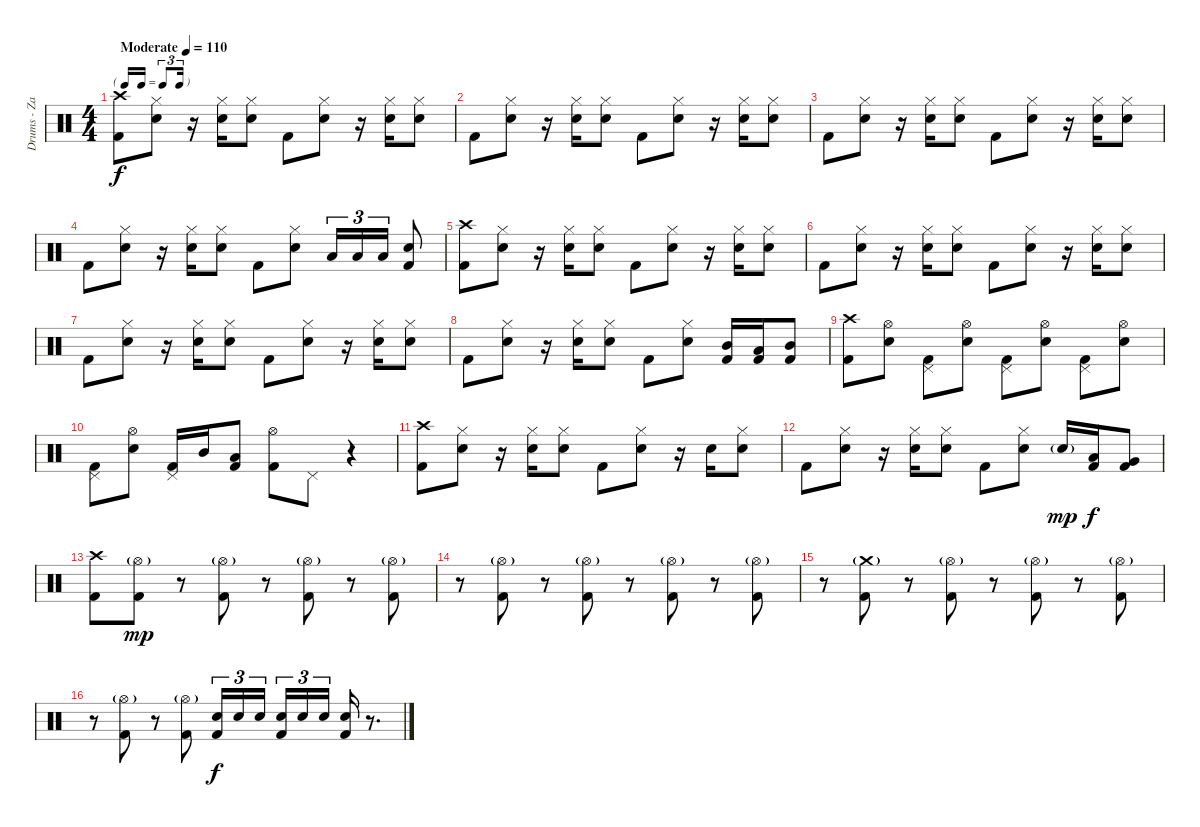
\track ("Drums - Zac" "Drums - Za") {instrument percussion}
\staff {score}
\articulation defaults
\ts (4 4)
\tf triplet16th
\tempo (110 "Moderate")
\clef neutral
\ks c
("Crash high (hit)" "Kick (hit) 2").8{dy f} ("Hi-Hat (closed)" "Snare (hit) 2").8 r.16 ("Hi-Hat (closed)" "Snare (hit) 2").16 ("Hi-Hat (closed)" "Snare (hit) 2").8 "Kick (hit) 2".8 ("Hi-Hat (closed)" "Snare (hit) 2").8 r.16 ("Hi-Hat (closed)" "Snare (hit) 2").16 ("Hi-Hat (closed)" "Snare (hit) 2").8 |
"Kick (hit) 2".8 ("Hi-Hat (closed)" "Snare (hit) 2").8 r.16 ("Hi-Hat (closed)" "Snare (hit) 2").16 ("Hi-Hat (closed)" "Snare (hit) 2").8 "Kick (hit) 2".8 ("Hi-Hat (closed)" "Snare (hit) 2").8 r.16 ("Hi-Hat (closed)" "Snare (hit) 2").16 ("Hi-Hat (closed)" "Snare (hit) 2").8 |
"Kick (hit) 2".8 ("Hi-Hat (closed)" "Snare (hit) 2").8 r.16 ("Hi-Hat (closed)" "Snare (hit) 2").16 ("Hi-Hat (closed)" "Snare (hit) 2").8 "Kick (hit) 2".8 ("Hi-Hat (closed)" "Snare (hit) 2").8 r.16 ("Hi-Hat (closed)" "Snare (hit) 2").16 ("Hi-Hat (closed)" "Snare (hit) 2").8 |
"Kick (hit) 2".8 ("Hi-Hat (closed)" "Snare (hit) 2").8 r.16 ("Hi-Hat (closed)" "Snare (hit) 2").16 ("Hi-Hat (closed)" "Snare (hit) 2").8 "Kick (hit) 2".8 ("Hi-Hat (closed)" "Snare (hit) 2").8 "Low Tom (hit)".16{tu (3 2)} "Low Tom (hit)".16{tu (3 2)} "Low Tom (hit)".16{tu (3 2)} ("Snare (hit) 2" "Kick (hit) 2").8 |
("Crash high (hit)" "Kick (hit) 2").8 ("Hi-Hat (closed)" "Snare (hit) 2").8 r.16 ("Hi-Hat (closed)" "Snare (hit) 2").16 ("Hi-Hat (closed)" "Snare (hit) 2").8 "Kick (hit) 2".8 ("Hi-Hat (closed)" "Snare (hit) 2").8 r.16 ("Hi-Hat (closed)" "Snare (hit) 2").16 ("Hi-Hat (closed)" "Snare (hit) 2").8 |
"Kick (hit) 2".8 ("Hi-Hat (closed)" "Snare (hit) 2").8 r.16 ("Hi-Hat (closed)" "Snare (hit) 2").16 ("Hi-Hat (closed)" "Snare (hit) 2").8 "Kick (hit) 2".8 ("Hi-Hat (closed)" "Snare (hit) 2").8 r.16 ("Hi-Hat (closed)" "Snare (hit) 2").16 ("Hi-Hat (closed)" "Snare (hit) 2").8 |
"Kick (hit) 2".8 ("Hi-Hat (closed)" "Snare (hit) 2").8 r.16 ("Hi-Hat (closed)" "Snare (hit) 2").16 ("Hi-Hat (closed)" "Snare (hit) 2").8 "Kick (hit) 2".8 ("Hi-Hat (closed)" "Snare (hit) 2").8 r.16 ("Hi-Hat (closed)" "Snare (hit) 2").16 ("Hi-Hat (closed)" "Snare (hit) 2").8 |
"Kick (hit) 2".8 ("Hi-Hat (closed)" "Snare (hit) 2").8 r.16 ("Hi-Hat (closed)" "Snare (hit) 2").16 ("Hi-Hat (closed)" "Snare (hit) 2").8 "Kick (hit) 2".8 ("Hi-Hat (closed)" "Snare (hit) 2").8 ("Mid Tom (hit)" "Kick (hit) 2").16 ("Low Tom (hit)" "Kick (hit) 2").16 ("Mid Tom (hit)" "Kick (hit) 2").8 |
("Crash high (hit)" "Kick (hit) 2").8 ("Hi-Hat (open)" "Snare (hit) 2").8 ("Pedal Hi-Hat (hit)" "Kick (hit) 2").8 ("Hi-Hat (open)" "Snare (hit) 2").8 ("Pedal Hi-Hat (hit)" "Kick (hit) 2").8 ("Hi-Hat (open)" "Snare (hit) 2").8 ("Pedal Hi-Hat (hit)" "Kick (hit) 2").8 ("Hi-Hat (open)" "Snare (hit) 2").8 |
("Pedal Hi-Hat (hit)" "Kick (hit) 2").8 ("Hi-Hat (open)" "Snare (hit) 2").8 ("Pedal Hi-Hat (hit)" "Kick (hit) 2").16 "Mid Tom (hit)".16 ("Low Tom (hit)" "Kick (hit) 2").8 ("Hi-Hat (open)" "Kick (hit) 2").8 "Pedal Hi-Hat (hit)".8 r.4 |
("Crash high (hit)" "Kick (hit) 2").8 ("Hi-Hat (closed)" "Snare (hit) 2").8 r.16 ("Hi-Hat (closed)" "Snare (hit) 2").16 ("Hi-Hat (closed)" "Snare (hit) 2").8 "Kick (hit) 2".8 ("Hi-Hat (closed)" "Snare (hit) 2").8 r.16 "Snare (hit) 2".16 ("Hi-Hat (closed)" "Snare (hit) 2").8 |
"Kick (hit) 2".8 ("Hi-Hat (closed)" "Snare (hit) 2").8 r.16 ("Hi-Hat (closed)" "Snare (hit) 2").16 ("Hi-Hat (closed)" "Snare (hit) 2").8 "Kick (hit) 2".8 ("Hi-Hat (closed)" "Snare (hit) 2").8 "Snare (hit) 2"{g}.16{dy mp} ("Low Tom (hit)" "Kick (hit) 2").16{dy f} ("Very Low Tom (hit)" "Kick (hit) 2").8 |
("Crash high (hit)" "Kick (hit) 2").8 ("Hi-Hat (open)"{g} "Kick (hit) 2").8{dy mp} r.8 ("Hi-Hat (open)"{g} "Kick (hit) 2").8 r.8 ("Hi-Hat (open)"{g} "Kick (hit) 2").8 r.8 ("Hi-Hat (open)"{g} "Kick (hit) 2").8 |
r.8 ("Hi-Hat (open)"{g} "Kick (hit) 2").8 r.8 ("Hi-Hat (open)"{g} "Kick (hit) 2").8 r.8 ("Hi-Hat (open)"{g} "Kick (hit) 2").8 r.8 ("Hi-Hat (open)"{g} "Kick (hit) 2").8 |
r.8 ("Crash medium (hit)"{g} "Kick (hit) 2").8 r.8 ("Hi-Hat (open)"{g} "Kick (hit) 2").8 r.8 ("Hi-Hat (open)"{g} "Kick (hit) 2").8 r.8 ("Hi-Hat (open)"{g} "Kick (hit) 2").8 |
r.8 ("Hi-Hat (open)"{g} "Kick (hit) 2").8 r.8 ("Hi-Hat (open)"{g} "Kick (hit) 2").8 ("Snare (hit) 2" "Kick (hit) 2").16{tu (3 2) dy f} "Snare (hit) 2".16{tu (3 2)} "Snare (hit) 2".16{tu (3 2) beam splitsecondary} ("Snare (hit) 2" "Kick (hit) 2").16{tu (3 2)} "Snare (hit) 2".16{tu (3 2)} "Snare (hit) 2".16{tu (3 2)} ("Snare (hit) 2" "Kick (hit) 2").16 r.8{d}
